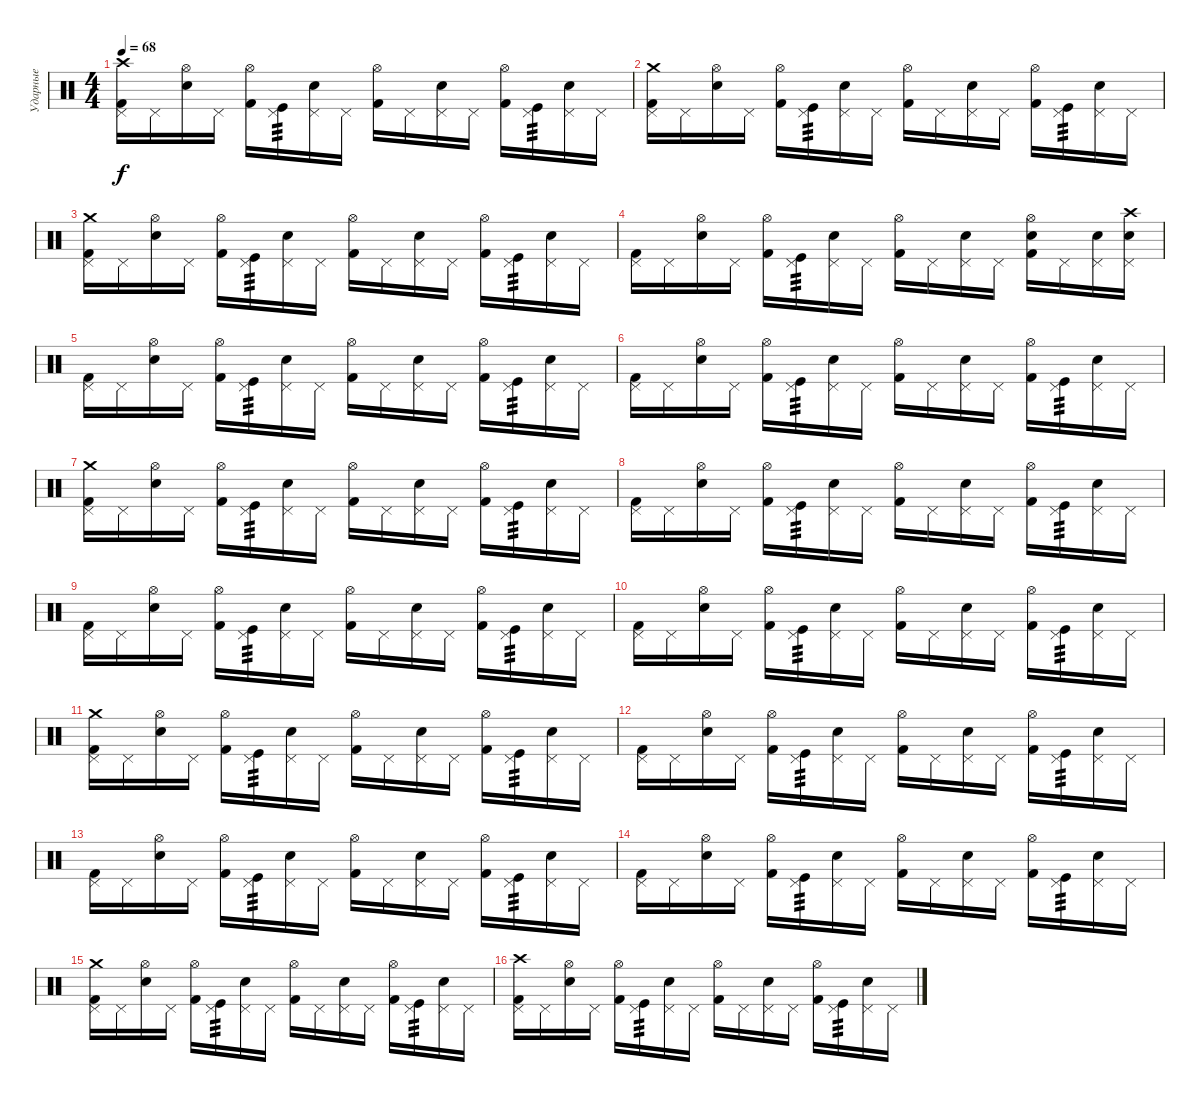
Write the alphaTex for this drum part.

\track ("Ударные" "Ударные") {instrument percussion}
\staff {score}
\articulation defaults
\ts (4 4)
\tempo 68
\clef neutral
\ks c
("Crash high (hit)" "Pedal Hi-Hat (hit)" "Kick (hit) 2").16{dy f} "Pedal Hi-Hat (hit)".16 ("Hi-Hat (open)" "Snare (hit) 2").16 "Pedal Hi-Hat (hit)".16 ("Hi-Hat (open)" "Kick (hit) 2").16 ("Pedal Hi-Hat (hit)" "Kick (hit)").16{tp 3} ("Pedal Hi-Hat (hit)" "Snare (hit) 2").16 "Pedal Hi-Hat (hit)".16 ("Hi-Hat (open)" "Kick (hit) 2").16 "Pedal Hi-Hat (hit)".16 ("Pedal Hi-Hat (hit)" "Snare (hit) 2").16 "Pedal Hi-Hat (hit)".16 ("Hi-Hat (open)" "Kick (hit) 2").16 ("Pedal Hi-Hat (hit)" "Kick (hit)").16{tp 3} ("Pedal Hi-Hat (hit)" "Snare (hit) 2").16 "Pedal Hi-Hat (hit)".16 |
("Crash medium (hit)" "Pedal Hi-Hat (hit)" "Kick (hit) 2").16 "Pedal Hi-Hat (hit)".16 ("Hi-Hat (open)" "Snare (hit) 2").16 "Pedal Hi-Hat (hit)".16 ("Hi-Hat (open)" "Kick (hit) 2").16 ("Pedal Hi-Hat (hit)" "Kick (hit)").16{tp 3} ("Pedal Hi-Hat (hit)" "Snare (hit) 2").16 "Pedal Hi-Hat (hit)".16 ("Hi-Hat (open)" "Kick (hit) 2").16 "Pedal Hi-Hat (hit)".16 ("Pedal Hi-Hat (hit)" "Snare (hit) 2").16 "Pedal Hi-Hat (hit)".16 ("Hi-Hat (open)" "Kick (hit) 2").16 ("Pedal Hi-Hat (hit)" "Kick (hit)").16{tp 3} ("Pedal Hi-Hat (hit)" "Snare (hit) 2").16 "Pedal Hi-Hat (hit)".16 |
("Crash medium (hit)" "Pedal Hi-Hat (hit)" "Kick (hit) 2").16 "Pedal Hi-Hat (hit)".16 ("Hi-Hat (open)" "Snare (hit) 2").16 "Pedal Hi-Hat (hit)".16 ("Hi-Hat (open)" "Kick (hit) 2").16 ("Pedal Hi-Hat (hit)" "Kick (hit)").16{tp 3} ("Pedal Hi-Hat (hit)" "Snare (hit) 2").16 "Pedal Hi-Hat (hit)".16 ("Hi-Hat (open)" "Kick (hit) 2").16 "Pedal Hi-Hat (hit)".16 ("Pedal Hi-Hat (hit)" "Snare (hit) 2").16 "Pedal Hi-Hat (hit)".16 ("Hi-Hat (open)" "Kick (hit) 2").16 ("Pedal Hi-Hat (hit)" "Kick (hit)").16{tp 3} ("Pedal Hi-Hat (hit)" "Snare (hit) 2").16 "Pedal Hi-Hat (hit)".16 |
("Pedal Hi-Hat (hit)" "Kick (hit) 2").16 "Pedal Hi-Hat (hit)".16 ("Hi-Hat (open)" "Snare (hit) 2").16 "Pedal Hi-Hat (hit)".16 ("Hi-Hat (open)" "Kick (hit) 2").16 ("Pedal Hi-Hat (hit)" "Kick (hit)").16{tp 3} ("Pedal Hi-Hat (hit)" "Snare (hit) 2").16 "Pedal Hi-Hat (hit)".16 ("Hi-Hat (open)" "Kick (hit) 2").16 "Pedal Hi-Hat (hit)".16 ("Pedal Hi-Hat (hit)" "Snare (hit) 2").16 "Pedal Hi-Hat (hit)".16 ("Hi-Hat (open)" "Snare (hit) 2" "Kick (hit) 2").16 "Pedal Hi-Hat (hit)".16 ("Pedal Hi-Hat (hit)" "Snare (hit) 2").16 ("Crash high (hit)" "Pedal Hi-Hat (hit)" "Snare (hit) 2").16 |
("Pedal Hi-Hat (hit)" "Kick (hit) 2").16 "Pedal Hi-Hat (hit)".16 ("Hi-Hat (open)" "Snare (hit) 2").16 "Pedal Hi-Hat (hit)".16 ("Hi-Hat (open)" "Kick (hit) 2").16 ("Pedal Hi-Hat (hit)" "Kick (hit)").16{tp 3} ("Pedal Hi-Hat (hit)" "Snare (hit) 2").16 "Pedal Hi-Hat (hit)".16 ("Hi-Hat (open)" "Kick (hit) 2").16 "Pedal Hi-Hat (hit)".16 ("Pedal Hi-Hat (hit)" "Snare (hit) 2").16 "Pedal Hi-Hat (hit)".16 ("Hi-Hat (open)" "Kick (hit) 2").16 ("Pedal Hi-Hat (hit)" "Kick (hit)").16{tp 3} ("Pedal Hi-Hat (hit)" "Snare (hit) 2").16 "Pedal Hi-Hat (hit)".16 |
("Pedal Hi-Hat (hit)" "Kick (hit) 2").16 "Pedal Hi-Hat (hit)".16 ("Hi-Hat (open)" "Snare (hit) 2").16 "Pedal Hi-Hat (hit)".16 ("Hi-Hat (open)" "Kick (hit) 2").16 ("Pedal Hi-Hat (hit)" "Kick (hit)").16{tp 3} ("Pedal Hi-Hat (hit)" "Snare (hit) 2").16 "Pedal Hi-Hat (hit)".16 ("Hi-Hat (open)" "Kick (hit) 2").16 "Pedal Hi-Hat (hit)".16 ("Pedal Hi-Hat (hit)" "Snare (hit) 2").16 "Pedal Hi-Hat (hit)".16 ("Hi-Hat (open)" "Kick (hit) 2").16 ("Pedal Hi-Hat (hit)" "Kick (hit)").16{tp 3} ("Pedal Hi-Hat (hit)" "Snare (hit) 2").16 "Pedal Hi-Hat (hit)".16 |
("Crash medium (hit)" "Pedal Hi-Hat (hit)" "Kick (hit) 2").16 "Pedal Hi-Hat (hit)".16 ("Hi-Hat (open)" "Snare (hit) 2").16 "Pedal Hi-Hat (hit)".16 ("Hi-Hat (open)" "Kick (hit) 2").16 ("Pedal Hi-Hat (hit)" "Kick (hit)").16{tp 3} ("Pedal Hi-Hat (hit)" "Snare (hit) 2").16 "Pedal Hi-Hat (hit)".16 ("Hi-Hat (open)" "Kick (hit) 2").16 "Pedal Hi-Hat (hit)".16 ("Pedal Hi-Hat (hit)" "Snare (hit) 2").16 "Pedal Hi-Hat (hit)".16 ("Hi-Hat (open)" "Kick (hit) 2").16 ("Pedal Hi-Hat (hit)" "Kick (hit)").16{tp 3} ("Pedal Hi-Hat (hit)" "Snare (hit) 2").16 "Pedal Hi-Hat (hit)".16 |
("Pedal Hi-Hat (hit)" "Kick (hit) 2").16 "Pedal Hi-Hat (hit)".16 ("Hi-Hat (open)" "Snare (hit) 2").16 "Pedal Hi-Hat (hit)".16 ("Hi-Hat (open)" "Kick (hit) 2").16 ("Pedal Hi-Hat (hit)" "Kick (hit)").16{tp 3} ("Pedal Hi-Hat (hit)" "Snare (hit) 2").16 "Pedal Hi-Hat (hit)".16 ("Hi-Hat (open)" "Kick (hit) 2").16 "Pedal Hi-Hat (hit)".16 ("Pedal Hi-Hat (hit)" "Snare (hit) 2").16 "Pedal Hi-Hat (hit)".16 ("Hi-Hat (open)" "Kick (hit) 2").16 ("Pedal Hi-Hat (hit)" "Kick (hit)").16{tp 3} ("Pedal Hi-Hat (hit)" "Snare (hit) 2").16 "Pedal Hi-Hat (hit)".16 |
("Pedal Hi-Hat (hit)" "Kick (hit) 2").16 "Pedal Hi-Hat (hit)".16 ("Hi-Hat (open)" "Snare (hit) 2").16 "Pedal Hi-Hat (hit)".16 ("Hi-Hat (open)" "Kick (hit) 2").16 ("Pedal Hi-Hat (hit)" "Kick (hit)").16{tp 3} ("Pedal Hi-Hat (hit)" "Snare (hit) 2").16 "Pedal Hi-Hat (hit)".16 ("Hi-Hat (open)" "Kick (hit) 2").16 "Pedal Hi-Hat (hit)".16 ("Pedal Hi-Hat (hit)" "Snare (hit) 2").16 "Pedal Hi-Hat (hit)".16 ("Hi-Hat (open)" "Kick (hit) 2").16 ("Pedal Hi-Hat (hit)" "Kick (hit)").16{tp 3} ("Pedal Hi-Hat (hit)" "Snare (hit) 2").16 "Pedal Hi-Hat (hit)".16 |
("Pedal Hi-Hat (hit)" "Kick (hit) 2").16 "Pedal Hi-Hat (hit)".16 ("Hi-Hat (open)" "Snare (hit) 2").16 "Pedal Hi-Hat (hit)".16 ("Hi-Hat (open)" "Kick (hit) 2").16 ("Pedal Hi-Hat (hit)" "Kick (hit)").16{tp 3} ("Pedal Hi-Hat (hit)" "Snare (hit) 2").16 "Pedal Hi-Hat (hit)".16 ("Hi-Hat (open)" "Kick (hit) 2").16 "Pedal Hi-Hat (hit)".16 ("Pedal Hi-Hat (hit)" "Snare (hit) 2").16 "Pedal Hi-Hat (hit)".16 ("Hi-Hat (open)" "Kick (hit) 2").16 ("Pedal Hi-Hat (hit)" "Kick (hit)").16{tp 3} ("Pedal Hi-Hat (hit)" "Snare (hit) 2").16 "Pedal Hi-Hat (hit)".16 |
("Crash medium (hit)" "Pedal Hi-Hat (hit)" "Kick (hit) 2").16 "Pedal Hi-Hat (hit)".16 ("Hi-Hat (open)" "Snare (hit) 2").16 "Pedal Hi-Hat (hit)".16 ("Hi-Hat (open)" "Kick (hit) 2").16 ("Pedal Hi-Hat (hit)" "Kick (hit)").16{tp 3} ("Pedal Hi-Hat (hit)" "Snare (hit) 2").16 "Pedal Hi-Hat (hit)".16 ("Hi-Hat (open)" "Kick (hit) 2").16 "Pedal Hi-Hat (hit)".16 ("Pedal Hi-Hat (hit)" "Snare (hit) 2").16 "Pedal Hi-Hat (hit)".16 ("Hi-Hat (open)" "Kick (hit) 2").16 ("Pedal Hi-Hat (hit)" "Kick (hit)").16{tp 3} ("Pedal Hi-Hat (hit)" "Snare (hit) 2").16 "Pedal Hi-Hat (hit)".16 |
("Pedal Hi-Hat (hit)" "Kick (hit) 2").16 "Pedal Hi-Hat (hit)".16 ("Hi-Hat (open)" "Snare (hit) 2").16 "Pedal Hi-Hat (hit)".16 ("Hi-Hat (open)" "Kick (hit) 2").16 ("Pedal Hi-Hat (hit)" "Kick (hit)").16{tp 3} ("Pedal Hi-Hat (hit)" "Snare (hit) 2").16 "Pedal Hi-Hat (hit)".16 ("Hi-Hat (open)" "Kick (hit) 2").16 "Pedal Hi-Hat (hit)".16 ("Pedal Hi-Hat (hit)" "Snare (hit) 2").16 "Pedal Hi-Hat (hit)".16 ("Hi-Hat (open)" "Kick (hit) 2").16 ("Pedal Hi-Hat (hit)" "Kick (hit)").16{tp 3} ("Pedal Hi-Hat (hit)" "Snare (hit) 2").16 "Pedal Hi-Hat (hit)".16 |
("Pedal Hi-Hat (hit)" "Kick (hit) 2").16 "Pedal Hi-Hat (hit)".16 ("Hi-Hat (open)" "Snare (hit) 2").16 "Pedal Hi-Hat (hit)".16 ("Hi-Hat (open)" "Kick (hit) 2").16 ("Pedal Hi-Hat (hit)" "Kick (hit)").16{tp 3} ("Pedal Hi-Hat (hit)" "Snare (hit) 2").16 "Pedal Hi-Hat (hit)".16 ("Hi-Hat (open)" "Kick (hit) 2").16 "Pedal Hi-Hat (hit)".16 ("Pedal Hi-Hat (hit)" "Snare (hit) 2").16 "Pedal Hi-Hat (hit)".16 ("Hi-Hat (open)" "Kick (hit) 2").16 ("Pedal Hi-Hat (hit)" "Kick (hit)").16{tp 3} ("Pedal Hi-Hat (hit)" "Snare (hit) 2").16 "Pedal Hi-Hat (hit)".16 |
("Pedal Hi-Hat (hit)" "Kick (hit) 2").16 "Pedal Hi-Hat (hit)".16 ("Hi-Hat (open)" "Snare (hit) 2").16 "Pedal Hi-Hat (hit)".16 ("Hi-Hat (open)" "Kick (hit) 2").16 ("Pedal Hi-Hat (hit)" "Kick (hit)").16{tp 3} ("Pedal Hi-Hat (hit)" "Snare (hit) 2").16 "Pedal Hi-Hat (hit)".16 ("Hi-Hat (open)" "Kick (hit) 2").16 "Pedal Hi-Hat (hit)".16 ("Pedal Hi-Hat (hit)" "Snare (hit) 2").16 "Pedal Hi-Hat (hit)".16 ("Hi-Hat (open)" "Kick (hit) 2").16 ("Pedal Hi-Hat (hit)" "Kick (hit)").16{tp 3} ("Pedal Hi-Hat (hit)" "Snare (hit) 2").16 "Pedal Hi-Hat (hit)".16 |
("Crash medium (hit)" "Pedal Hi-Hat (hit)" "Kick (hit) 2").16 "Pedal Hi-Hat (hit)".16 ("Hi-Hat (open)" "Snare (hit) 2").16 "Pedal Hi-Hat (hit)".16 ("Hi-Hat (open)" "Kick (hit) 2").16 ("Pedal Hi-Hat (hit)" "Kick (hit)").16{tp 3} ("Pedal Hi-Hat (hit)" "Snare (hit) 2").16 "Pedal Hi-Hat (hit)".16 ("Hi-Hat (open)" "Kick (hit) 2").16 "Pedal Hi-Hat (hit)".16 ("Pedal Hi-Hat (hit)" "Snare (hit) 2").16 "Pedal Hi-Hat (hit)".16 ("Hi-Hat (open)" "Kick (hit) 2").16 ("Pedal Hi-Hat (hit)" "Kick (hit)").16{tp 3} ("Pedal Hi-Hat (hit)" "Snare (hit) 2").16 "Pedal Hi-Hat (hit)".16 |
("Crash high (hit)" "Pedal Hi-Hat (hit)" "Kick (hit) 2").16 "Pedal Hi-Hat (hit)".16 ("Hi-Hat (open)" "Snare (hit) 2").16 "Pedal Hi-Hat (hit)".16 ("Hi-Hat (open)" "Kick (hit) 2").16 ("Pedal Hi-Hat (hit)" "Kick (hit)").16{tp 3} ("Pedal Hi-Hat (hit)" "Snare (hit) 2").16 "Pedal Hi-Hat (hit)".16 ("Hi-Hat (open)" "Kick (hit) 2").16 "Pedal Hi-Hat (hit)".16 ("Pedal Hi-Hat (hit)" "Snare (hit) 2").16 "Pedal Hi-Hat (hit)".16 ("Hi-Hat (open)" "Kick (hit) 2").16 ("Pedal Hi-Hat (hit)" "Kick (hit)").16{tp 3} ("Pedal Hi-Hat (hit)" "Snare (hit) 2").16 "Pedal Hi-Hat (hit)".16
